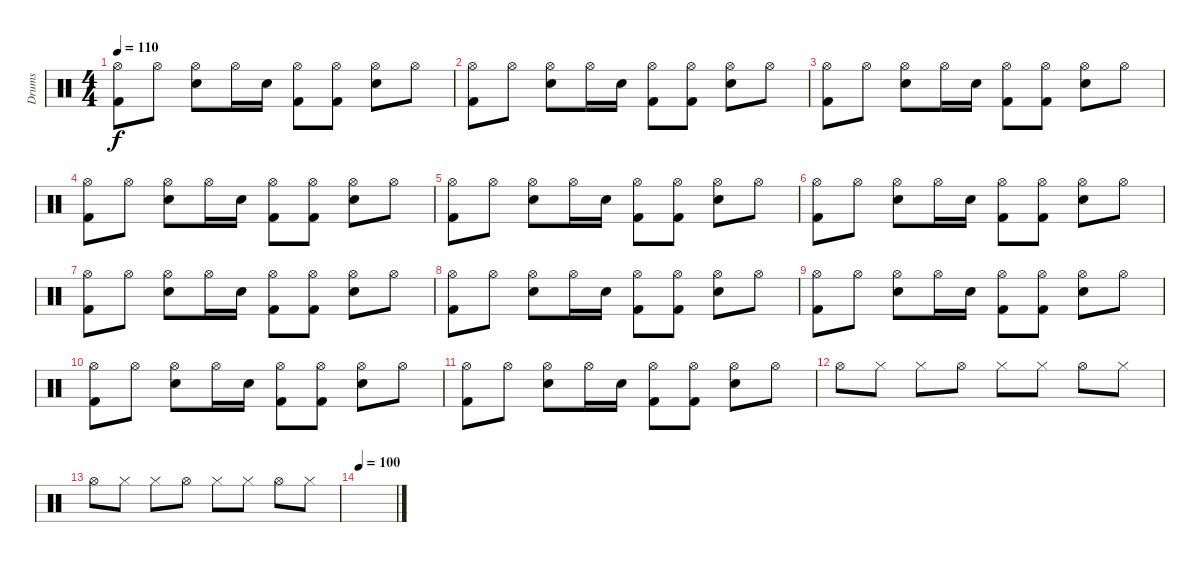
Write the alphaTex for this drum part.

\track ("Drums" "Drums") {instrument percussion}
\staff {score}
\articulation defaults
\ts (4 4)
\tempo 110
\clef neutral
\ks c
("Hi-Hat (open)" "Kick (hit) 2").8{dy f} "Hi-Hat (open)".8 ("Hi-Hat (open)" "Snare (hit) 2").8 "Hi-Hat (open)".16 "Electric Snare (hit)".16 ("Hi-Hat (open)" "Kick (hit) 2").8 ("Hi-Hat (open)" "Kick (hit) 2").8 ("Hi-Hat (open)" "Snare (hit) 2").8 "Hi-Hat (open)".8 |
("Hi-Hat (open)" "Kick (hit) 2").8 "Hi-Hat (open)".8 ("Hi-Hat (open)" "Snare (hit) 2").8 "Hi-Hat (open)".16 "Electric Snare (hit)".16 ("Hi-Hat (open)" "Kick (hit) 2").8 ("Hi-Hat (open)" "Kick (hit) 2").8 ("Hi-Hat (open)" "Snare (hit) 2").8 "Hi-Hat (open)".8 |
("Hi-Hat (open)" "Kick (hit) 2").8 "Hi-Hat (open)".8 ("Hi-Hat (open)" "Snare (hit) 2").8 "Hi-Hat (open)".16 "Electric Snare (hit)".16 ("Hi-Hat (open)" "Kick (hit) 2").8 ("Hi-Hat (open)" "Kick (hit) 2").8 ("Hi-Hat (open)" "Snare (hit) 2").8 "Hi-Hat (open)".8 |
("Hi-Hat (open)" "Kick (hit) 2").8 "Hi-Hat (open)".8 ("Hi-Hat (open)" "Snare (hit) 2").8 "Hi-Hat (open)".16 "Electric Snare (hit)".16 ("Hi-Hat (open)" "Kick (hit) 2").8 ("Hi-Hat (open)" "Kick (hit) 2").8 ("Hi-Hat (open)" "Snare (hit) 2").8 "Hi-Hat (open)".8 |
("Hi-Hat (open)" "Kick (hit) 2").8 "Hi-Hat (open)".8 ("Hi-Hat (open)" "Snare (hit) 2").8 "Hi-Hat (open)".16 "Electric Snare (hit)".16 ("Hi-Hat (open)" "Kick (hit) 2").8 ("Hi-Hat (open)" "Kick (hit) 2").8 ("Hi-Hat (open)" "Snare (hit) 2").8 "Hi-Hat (open)".8 |
("Hi-Hat (open)" "Kick (hit) 2").8 "Hi-Hat (open)".8 ("Hi-Hat (open)" "Snare (hit) 2").8 "Hi-Hat (open)".16 "Electric Snare (hit)".16 ("Hi-Hat (open)" "Kick (hit) 2").8 ("Hi-Hat (open)" "Kick (hit) 2").8 ("Hi-Hat (open)" "Snare (hit) 2").8 "Hi-Hat (open)".8 |
("Hi-Hat (open)" "Kick (hit) 2").8 "Hi-Hat (open)".8 ("Hi-Hat (open)" "Snare (hit) 2").8 "Hi-Hat (open)".16 "Electric Snare (hit)".16 ("Hi-Hat (open)" "Kick (hit) 2").8 ("Hi-Hat (open)" "Kick (hit) 2").8 ("Hi-Hat (open)" "Snare (hit) 2").8 "Hi-Hat (open)".8 |
("Hi-Hat (open)" "Kick (hit) 2").8 "Hi-Hat (open)".8 ("Hi-Hat (open)" "Snare (hit) 2").8 "Hi-Hat (open)".16 "Electric Snare (hit)".16 ("Hi-Hat (open)" "Kick (hit) 2").8 ("Hi-Hat (open)" "Kick (hit) 2").8 ("Hi-Hat (open)" "Snare (hit) 2").8 "Hi-Hat (open)".8 |
("Hi-Hat (open)" "Kick (hit) 2").8 "Hi-Hat (open)".8 ("Hi-Hat (open)" "Snare (hit) 2").8 "Hi-Hat (open)".16 "Electric Snare (hit)".16 ("Hi-Hat (open)" "Kick (hit) 2").8 ("Hi-Hat (open)" "Kick (hit) 2").8 ("Hi-Hat (open)" "Snare (hit) 2").8 "Hi-Hat (open)".8 |
("Hi-Hat (open)" "Kick (hit) 2").8 "Hi-Hat (open)".8 ("Hi-Hat (open)" "Snare (hit) 2").8 "Hi-Hat (open)".16 "Electric Snare (hit)".16 ("Hi-Hat (open)" "Kick (hit) 2").8 ("Hi-Hat (open)" "Kick (hit) 2").8 ("Hi-Hat (open)" "Snare (hit) 2").8 "Hi-Hat (open)".8 |
("Hi-Hat (open)" "Kick (hit) 2").8 "Hi-Hat (open)".8 ("Hi-Hat (open)" "Snare (hit) 2").8 "Hi-Hat (open)".16 "Electric Snare (hit)".16 ("Hi-Hat (open)" "Kick (hit) 2").8 ("Hi-Hat (open)" "Kick (hit) 2").8 ("Hi-Hat (open)" "Snare (hit) 2").8 "Hi-Hat (open)".8 |
"Hi-Hat (open)".8 "Hi-Hat (closed)".8 "Hi-Hat (closed)".8 "Hi-Hat (open)".8 "Hi-Hat (closed)".8 "Hi-Hat (closed)".8 "Hi-Hat (open)".8 "Hi-Hat (closed)".8 |
"Hi-Hat (open)".8 "Hi-Hat (closed)".8 "Hi-Hat (closed)".8 "Hi-Hat (open)".8 "Hi-Hat (closed)".8 "Hi-Hat (closed)".8 "Hi-Hat (open)".8 "Hi-Hat (closed)".8 |
\tempo 100
